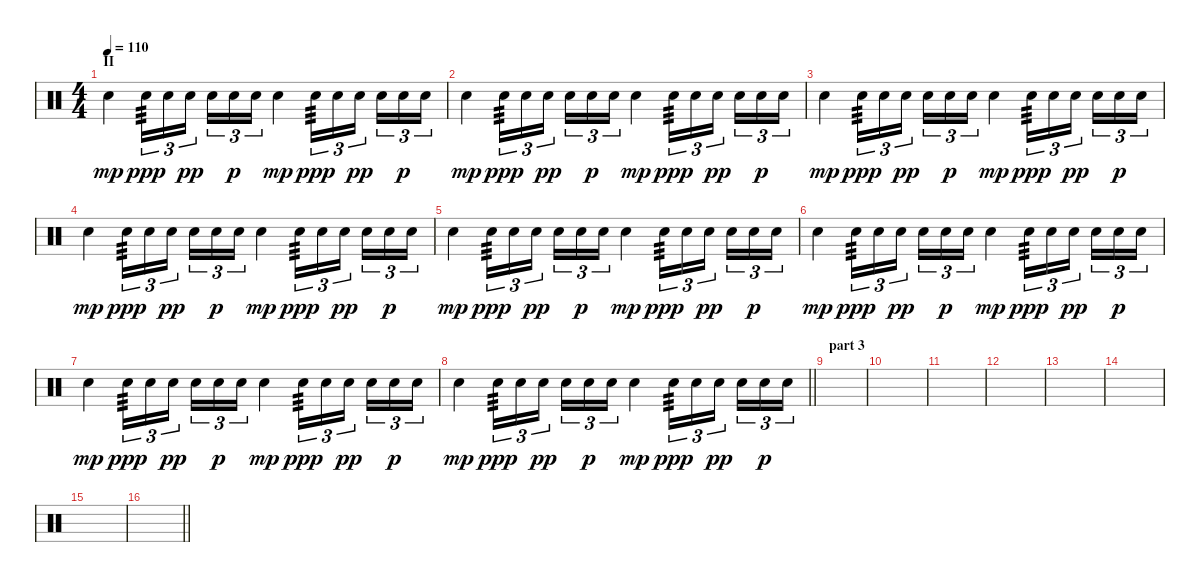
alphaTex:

\track "" {instrument percussion}
\staff {score}
\articulation defaults
\ts (4 4)
\section ("" "II")
\tempo 110
\clef neutral
\ks c "Electric Snare (hit)".4{dy mp} "Electric Snare (hit)".16{tu (3 2) tp 3 dy ppp} "Electric Snare (hit)".16{tu (3 2)} "Electric Snare (hit)".16{tu (3 2) dy pp beam splitsecondary} "Electric Snare (hit)".16{tu (3 2)} "Electric Snare (hit)".16{tu (3 2) dy p} "Electric Snare (hit)".16{tu (3 2)} "Electric Snare (hit)".4{dy mp} "Electric Snare (hit)".16{tu (3 2) tp 3 dy ppp} "Electric Snare (hit)".16{tu (3 2)} "Electric Snare (hit)".16{tu (3 2) dy pp beam splitsecondary} "Electric Snare (hit)".16{tu (3 2)} "Electric Snare (hit)".16{tu (3 2) dy p} "Electric Snare (hit)".16{tu (3 2)}
|
"Electric Snare (hit)".4{dy mp} "Electric Snare (hit)".16{tu (3 2) tp 3 dy ppp} "Electric Snare (hit)".16{tu (3 2)} "Electric Snare (hit)".16{tu (3 2) dy pp beam splitsecondary} "Electric Snare (hit)".16{tu (3 2)} "Electric Snare (hit)".16{tu (3 2) dy p} "Electric Snare (hit)".16{tu (3 2)} "Electric Snare (hit)".4{dy mp} "Electric Snare (hit)".16{tu (3 2) tp 3 dy ppp} "Electric Snare (hit)".16{tu (3 2)} "Electric Snare (hit)".16{tu (3 2) dy pp beam splitsecondary} "Electric Snare (hit)".16{tu (3 2)} "Electric Snare (hit)".16{tu (3 2) dy p} "Electric Snare (hit)".16{tu (3 2)} |
"Electric Snare (hit)".4{dy mp} "Electric Snare (hit)".16{tu (3 2) tp 3 dy ppp} "Electric Snare (hit)".16{tu (3 2)} "Electric Snare (hit)".16{tu (3 2) dy pp beam splitsecondary} "Electric Snare (hit)".16{tu (3 2)} "Electric Snare (hit)".16{tu (3 2) dy p} "Electric Snare (hit)".16{tu (3 2)} "Electric Snare (hit)".4{dy mp} "Electric Snare (hit)".16{tu (3 2) tp 3 dy ppp} "Electric Snare (hit)".16{tu (3 2)} "Electric Snare (hit)".16{tu (3 2) dy pp beam splitsecondary} "Electric Snare (hit)".16{tu (3 2)} "Electric Snare (hit)".16{tu (3 2) dy p} "Electric Snare (hit)".16{tu (3 2)} |
"Electric Snare (hit)".4{dy mp} "Electric Snare (hit)".16{tu (3 2) tp 3 dy ppp} "Electric Snare (hit)".16{tu (3 2)} "Electric Snare (hit)".16{tu (3 2) dy pp beam splitsecondary} "Electric Snare (hit)".16{tu (3 2)} "Electric Snare (hit)".16{tu (3 2) dy p} "Electric Snare (hit)".16{tu (3 2)} "Electric Snare (hit)".4{dy mp} "Electric Snare (hit)".16{tu (3 2) tp 3 dy ppp} "Electric Snare (hit)".16{tu (3 2)} "Electric Snare (hit)".16{tu (3 2) dy pp beam splitsecondary} "Electric Snare (hit)".16{tu (3 2)} "Electric Snare (hit)".16{tu (3 2) dy p} "Electric Snare (hit)".16{tu (3 2)} |
"Electric Snare (hit)".4{dy mp} "Electric Snare (hit)".16{tu (3 2) tp 3 dy ppp} "Electric Snare (hit)".16{tu (3 2)} "Electric Snare (hit)".16{tu (3 2) dy pp beam splitsecondary} "Electric Snare (hit)".16{tu (3 2)} "Electric Snare (hit)".16{tu (3 2) dy p} "Electric Snare (hit)".16{tu (3 2)} "Electric Snare (hit)".4{dy mp} "Electric Snare (hit)".16{tu (3 2) tp 3 dy ppp} "Electric Snare (hit)".16{tu (3 2)} "Electric Snare (hit)".16{tu (3 2) dy pp beam splitsecondary} "Electric Snare (hit)".16{tu (3 2)} "Electric Snare (hit)".16{tu (3 2) dy p} "Electric Snare (hit)".16{tu (3 2)} |
"Electric Snare (hit)".4{dy mp} "Electric Snare (hit)".16{tu (3 2) tp 3 dy ppp} "Electric Snare (hit)".16{tu (3 2)} "Electric Snare (hit)".16{tu (3 2) dy pp beam splitsecondary} "Electric Snare (hit)".16{tu (3 2)} "Electric Snare (hit)".16{tu (3 2) dy p} "Electric Snare (hit)".16{tu (3 2)} "Electric Snare (hit)".4{dy mp} "Electric Snare (hit)".16{tu (3 2) tp 3 dy ppp} "Electric Snare (hit)".16{tu (3 2)} "Electric Snare (hit)".16{tu (3 2) dy pp beam splitsecondary} "Electric Snare (hit)".16{tu (3 2)} "Electric Snare (hit)".16{tu (3 2) dy p} "Electric Snare (hit)".16{tu (3 2)} |
"Electric Snare (hit)".4{dy mp} "Electric Snare (hit)".16{tu (3 2) tp 3 dy ppp} "Electric Snare (hit)".16{tu (3 2)} "Electric Snare (hit)".16{tu (3 2) dy pp beam splitsecondary} "Electric Snare (hit)".16{tu (3 2)} "Electric Snare (hit)".16{tu (3 2) dy p} "Electric Snare (hit)".16{tu (3 2)} "Electric Snare (hit)".4{dy mp} "Electric Snare (hit)".16{tu (3 2) tp 3 dy ppp} "Electric Snare (hit)".16{tu (3 2)} "Electric Snare (hit)".16{tu (3 2) dy pp beam splitsecondary} "Electric Snare (hit)".16{tu (3 2)} "Electric Snare (hit)".16{tu (3 2) dy p} "Electric Snare (hit)".16{tu (3 2)} |
\barLineRight lightlight "Electric Snare (hit)".4{dy mp} "Electric Snare (hit)".16{tu (3 2) tp 3 dy ppp} "Electric Snare (hit)".16{tu (3 2)} "Electric Snare (hit)".16{tu (3 2) dy pp beam splitsecondary} "Electric Snare (hit)".16{tu (3 2)} "Electric Snare (hit)".16{tu (3 2) dy p} "Electric Snare (hit)".16{tu (3 2)} "Electric Snare (hit)".4{dy mp} "Electric Snare (hit)".16{tu (3 2) tp 3 dy ppp} "Electric Snare (hit)".16{tu (3 2)} "Electric Snare (hit)".16{tu (3 2) dy pp beam splitsecondary} "Electric Snare (hit)".16{tu (3 2)} "Electric Snare (hit)".16{tu (3 2) dy p} "Electric Snare (hit)".16{tu (3 2)}
|
\section ("" "part 3")
|
|
|
|
|
|
|
\barLineRight lightlight
